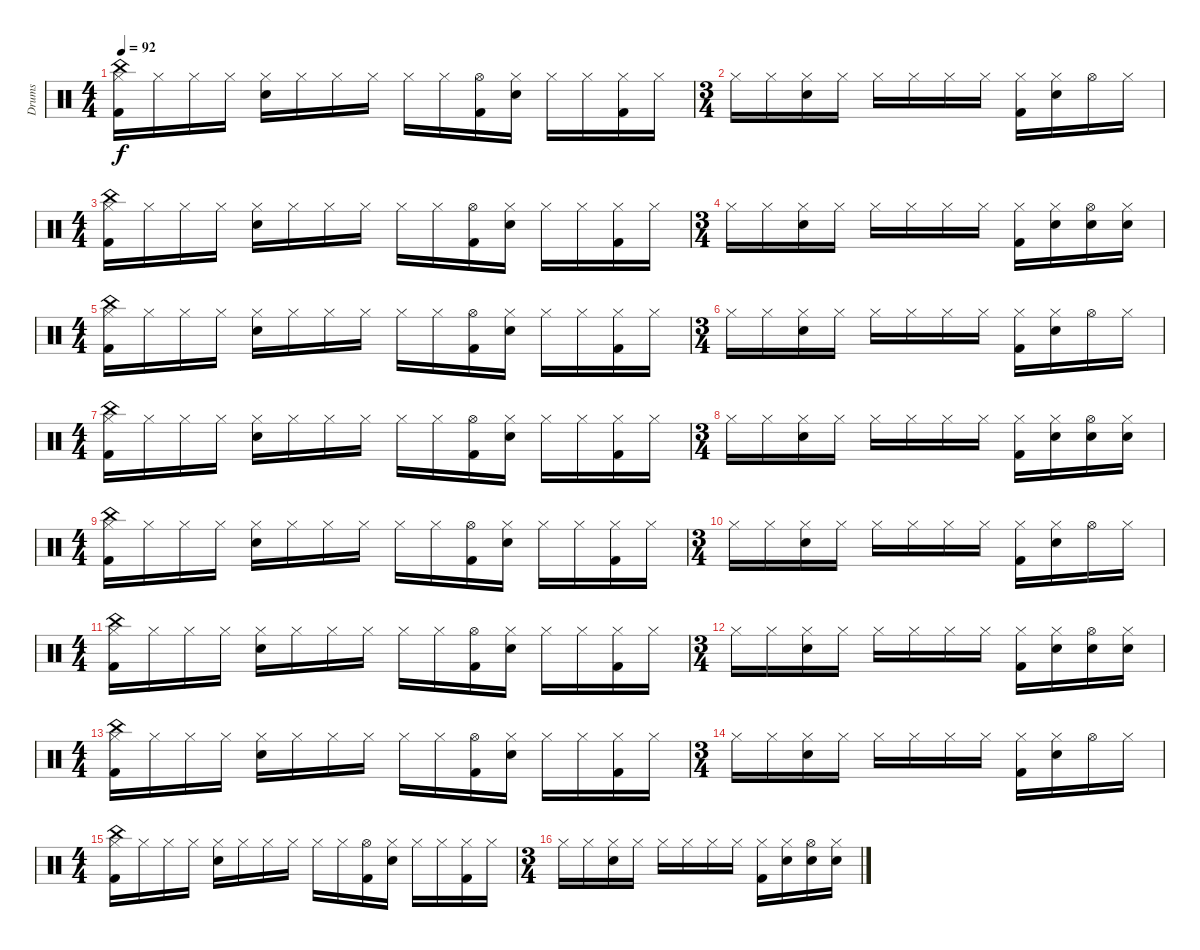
\track ("Drums" "Drums") {instrument percussion}
\staff {score}
\articulation defaults
\ts (4 4)
\tempo 92
\clef neutral
\ks c
("China (hit)" "Hi-Hat (closed)" "Kick (hit) 2").16{dy f} "Hi-Hat (closed)".16 "Hi-Hat (closed)".16 "Hi-Hat (closed)".16 ("Hi-Hat (closed)" "Snare (hit) 2").16 "Hi-Hat (closed)".16 "Hi-Hat (closed)".16 "Hi-Hat (closed)".16 "Hi-Hat (closed)".16 "Hi-Hat (closed)".16 ("Hi-Hat (open)" "Kick (hit) 2").16 ("Hi-Hat (closed)" "Snare (hit) 2").16 "Hi-Hat (closed)".16 "Hi-Hat (closed)".16 ("Hi-Hat (closed)" "Kick (hit) 2").16 "Hi-Hat (closed)".16 |
\ts (3 4)
"Hi-Hat (closed)".16 "Hi-Hat (closed)".16 ("Hi-Hat (closed)" "Snare (hit) 2").16 "Hi-Hat (closed)".16 "Hi-Hat (closed)".16 "Hi-Hat (closed)".16 "Hi-Hat (closed)".16 "Hi-Hat (closed)".16 ("Hi-Hat (closed)" "Kick (hit) 2").16 ("Hi-Hat (closed)" "Snare (hit) 2").16 "Hi-Hat (open)".16 "Hi-Hat (closed)".16 |
\ts (4 4)
("China (hit)" "Hi-Hat (closed)" "Kick (hit) 2").16 "Hi-Hat (closed)".16 "Hi-Hat (closed)".16 "Hi-Hat (closed)".16 ("Hi-Hat (closed)" "Snare (hit) 2").16 "Hi-Hat (closed)".16 "Hi-Hat (closed)".16 "Hi-Hat (closed)".16 "Hi-Hat (closed)".16 "Hi-Hat (closed)".16 ("Hi-Hat (open)" "Kick (hit) 2").16 ("Hi-Hat (closed)" "Snare (hit) 2").16 "Hi-Hat (closed)".16 "Hi-Hat (closed)".16 ("Hi-Hat (closed)" "Kick (hit) 2").16 "Hi-Hat (closed)".16 |
\ts (3 4)
"Hi-Hat (closed)".16 "Hi-Hat (closed)".16 ("Hi-Hat (closed)" "Snare (hit) 2").16 "Hi-Hat (closed)".16 "Hi-Hat (closed)".16 "Hi-Hat (closed)".16 "Hi-Hat (closed)".16 "Hi-Hat (closed)".16 ("Hi-Hat (closed)" "Kick (hit) 2").16 ("Hi-Hat (closed)" "Snare (hit) 2").16 ("Hi-Hat (open)" "Snare (hit) 2").16 ("Hi-Hat (closed)" "Snare (hit) 2").16 |
\ts (4 4)
("China (hit)" "Hi-Hat (closed)" "Kick (hit) 2").16 "Hi-Hat (closed)".16 "Hi-Hat (closed)".16 "Hi-Hat (closed)".16 ("Hi-Hat (closed)" "Snare (hit) 2").16 "Hi-Hat (closed)".16 "Hi-Hat (closed)".16 "Hi-Hat (closed)".16 "Hi-Hat (closed)".16 "Hi-Hat (closed)".16 ("Hi-Hat (open)" "Kick (hit) 2").16 ("Hi-Hat (closed)" "Snare (hit) 2").16 "Hi-Hat (closed)".16 "Hi-Hat (closed)".16 ("Hi-Hat (closed)" "Kick (hit) 2").16 "Hi-Hat (closed)".16 |
\ts (3 4)
"Hi-Hat (closed)".16 "Hi-Hat (closed)".16 ("Hi-Hat (closed)" "Snare (hit) 2").16 "Hi-Hat (closed)".16 "Hi-Hat (closed)".16 "Hi-Hat (closed)".16 "Hi-Hat (closed)".16 "Hi-Hat (closed)".16 ("Hi-Hat (closed)" "Kick (hit) 2").16 ("Hi-Hat (closed)" "Snare (hit) 2").16 "Hi-Hat (open)".16 "Hi-Hat (closed)".16 |
\ts (4 4)
("China (hit)" "Hi-Hat (closed)" "Kick (hit) 2").16 "Hi-Hat (closed)".16 "Hi-Hat (closed)".16 "Hi-Hat (closed)".16 ("Hi-Hat (closed)" "Snare (hit) 2").16 "Hi-Hat (closed)".16 "Hi-Hat (closed)".16 "Hi-Hat (closed)".16 "Hi-Hat (closed)".16 "Hi-Hat (closed)".16 ("Hi-Hat (open)" "Kick (hit) 2").16 ("Hi-Hat (closed)" "Snare (hit) 2").16 "Hi-Hat (closed)".16 "Hi-Hat (closed)".16 ("Hi-Hat (closed)" "Kick (hit) 2").16 "Hi-Hat (closed)".16 |
\ts (3 4)
"Hi-Hat (closed)".16 "Hi-Hat (closed)".16 ("Hi-Hat (closed)" "Snare (hit) 2").16 "Hi-Hat (closed)".16 "Hi-Hat (closed)".16 "Hi-Hat (closed)".16 "Hi-Hat (closed)".16 "Hi-Hat (closed)".16 ("Hi-Hat (closed)" "Kick (hit) 2").16 ("Hi-Hat (closed)" "Snare (hit) 2").16 ("Hi-Hat (open)" "Snare (hit) 2").16 ("Hi-Hat (closed)" "Snare (hit) 2").16 |
\ts (4 4)
("China (hit)" "Hi-Hat (closed)" "Kick (hit) 2").16 "Hi-Hat (closed)".16 "Hi-Hat (closed)".16 "Hi-Hat (closed)".16 ("Hi-Hat (closed)" "Snare (hit) 2").16 "Hi-Hat (closed)".16 "Hi-Hat (closed)".16 "Hi-Hat (closed)".16 "Hi-Hat (closed)".16 "Hi-Hat (closed)".16 ("Hi-Hat (open)" "Kick (hit) 2").16 ("Hi-Hat (closed)" "Snare (hit) 2").16 "Hi-Hat (closed)".16 "Hi-Hat (closed)".16 ("Hi-Hat (closed)" "Kick (hit) 2").16 "Hi-Hat (closed)".16 |
\ts (3 4)
"Hi-Hat (closed)".16 "Hi-Hat (closed)".16 ("Hi-Hat (closed)" "Snare (hit) 2").16 "Hi-Hat (closed)".16 "Hi-Hat (closed)".16 "Hi-Hat (closed)".16 "Hi-Hat (closed)".16 "Hi-Hat (closed)".16 ("Hi-Hat (closed)" "Kick (hit) 2").16 ("Hi-Hat (closed)" "Snare (hit) 2").16 "Hi-Hat (open)".16 "Hi-Hat (closed)".16 |
\ts (4 4)
("China (hit)" "Hi-Hat (closed)" "Kick (hit) 2").16 "Hi-Hat (closed)".16 "Hi-Hat (closed)".16 "Hi-Hat (closed)".16 ("Hi-Hat (closed)" "Snare (hit) 2").16 "Hi-Hat (closed)".16 "Hi-Hat (closed)".16 "Hi-Hat (closed)".16 "Hi-Hat (closed)".16 "Hi-Hat (closed)".16 ("Hi-Hat (open)" "Kick (hit) 2").16 ("Hi-Hat (closed)" "Snare (hit) 2").16 "Hi-Hat (closed)".16 "Hi-Hat (closed)".16 ("Hi-Hat (closed)" "Kick (hit) 2").16 "Hi-Hat (closed)".16 |
\ts (3 4)
"Hi-Hat (closed)".16 "Hi-Hat (closed)".16 ("Hi-Hat (closed)" "Snare (hit) 2").16 "Hi-Hat (closed)".16 "Hi-Hat (closed)".16 "Hi-Hat (closed)".16 "Hi-Hat (closed)".16 "Hi-Hat (closed)".16 ("Hi-Hat (closed)" "Kick (hit) 2").16 ("Hi-Hat (closed)" "Snare (hit) 2").16 ("Hi-Hat (open)" "Snare (hit) 2").16 ("Hi-Hat (closed)" "Snare (hit) 2").16 |
\ts (4 4)
("China (hit)" "Hi-Hat (closed)" "Kick (hit) 2").16 "Hi-Hat (closed)".16 "Hi-Hat (closed)".16 "Hi-Hat (closed)".16 ("Hi-Hat (closed)" "Snare (hit) 2").16 "Hi-Hat (closed)".16 "Hi-Hat (closed)".16 "Hi-Hat (closed)".16 "Hi-Hat (closed)".16 "Hi-Hat (closed)".16 ("Hi-Hat (open)" "Kick (hit) 2").16 ("Hi-Hat (closed)" "Snare (hit) 2").16 "Hi-Hat (closed)".16 "Hi-Hat (closed)".16 ("Hi-Hat (closed)" "Kick (hit) 2").16 "Hi-Hat (closed)".16 |
\ts (3 4)
"Hi-Hat (closed)".16 "Hi-Hat (closed)".16 ("Hi-Hat (closed)" "Snare (hit) 2").16 "Hi-Hat (closed)".16 "Hi-Hat (closed)".16 "Hi-Hat (closed)".16 "Hi-Hat (closed)".16 "Hi-Hat (closed)".16 ("Hi-Hat (closed)" "Kick (hit) 2").16 ("Hi-Hat (closed)" "Snare (hit) 2").16 "Hi-Hat (open)".16 "Hi-Hat (closed)".16 |
\ts (4 4)
("China (hit)" "Hi-Hat (closed)" "Kick (hit) 2").16 "Hi-Hat (closed)".16 "Hi-Hat (closed)".16 "Hi-Hat (closed)".16 ("Hi-Hat (closed)" "Snare (hit) 2").16 "Hi-Hat (closed)".16 "Hi-Hat (closed)".16 "Hi-Hat (closed)".16 "Hi-Hat (closed)".16 "Hi-Hat (closed)".16 ("Hi-Hat (open)" "Kick (hit) 2").16 ("Hi-Hat (closed)" "Snare (hit) 2").16 "Hi-Hat (closed)".16 "Hi-Hat (closed)".16 ("Hi-Hat (closed)" "Kick (hit) 2").16 "Hi-Hat (closed)".16 |
\ts (3 4)
"Hi-Hat (closed)".16 "Hi-Hat (closed)".16 ("Hi-Hat (closed)" "Snare (hit) 2").16 "Hi-Hat (closed)".16 "Hi-Hat (closed)".16 "Hi-Hat (closed)".16 "Hi-Hat (closed)".16 "Hi-Hat (closed)".16 ("Hi-Hat (closed)" "Kick (hit) 2").16 ("Hi-Hat (closed)" "Snare (hit) 2").16 ("Hi-Hat (open)" "Snare (hit) 2").16 ("Hi-Hat (closed)" "Snare (hit) 2").16
